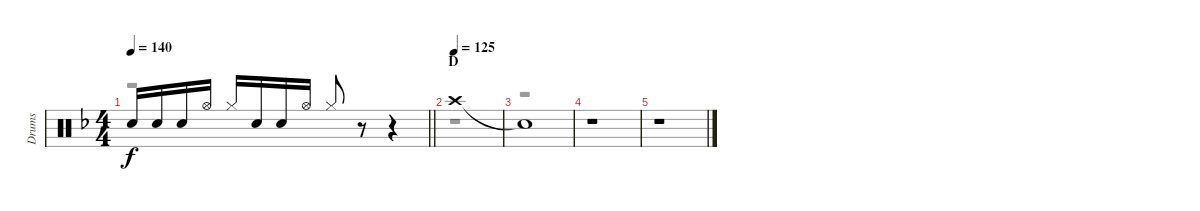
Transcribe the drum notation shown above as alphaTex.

\track ("Drums" "Drums") {instrument percussion}
\staff {score}
\articulation defaults
\voice
\ts (4 4)
\tempo 140
\clef neutral
\barLineRight lightlight
\ks f "Snare (hit) 2".16{dy f} "Snare (hit) 2".16 "Snare (hit) 2".16 "Hi-Hat (open)".16 "Hi-Hat (closed)".16 "Snare (hit) 2".16 "Snare (hit) 2".16 "Hi-Hat (open)".16 "Hi-Hat (closed)".8
r.8 r.4 |
\section ("" "D")
\tempo (125)
"Crash high (hit)".1 |
"Snare (hit)"{t}.1 |
r.1 |
r.1
\voice
\clef neutral
\ottava regular
\simile none
\barLineRight lightlight
\ks f
r.1{dy fff} |
r.1 |
r.1 |
r.1 |
r.1
